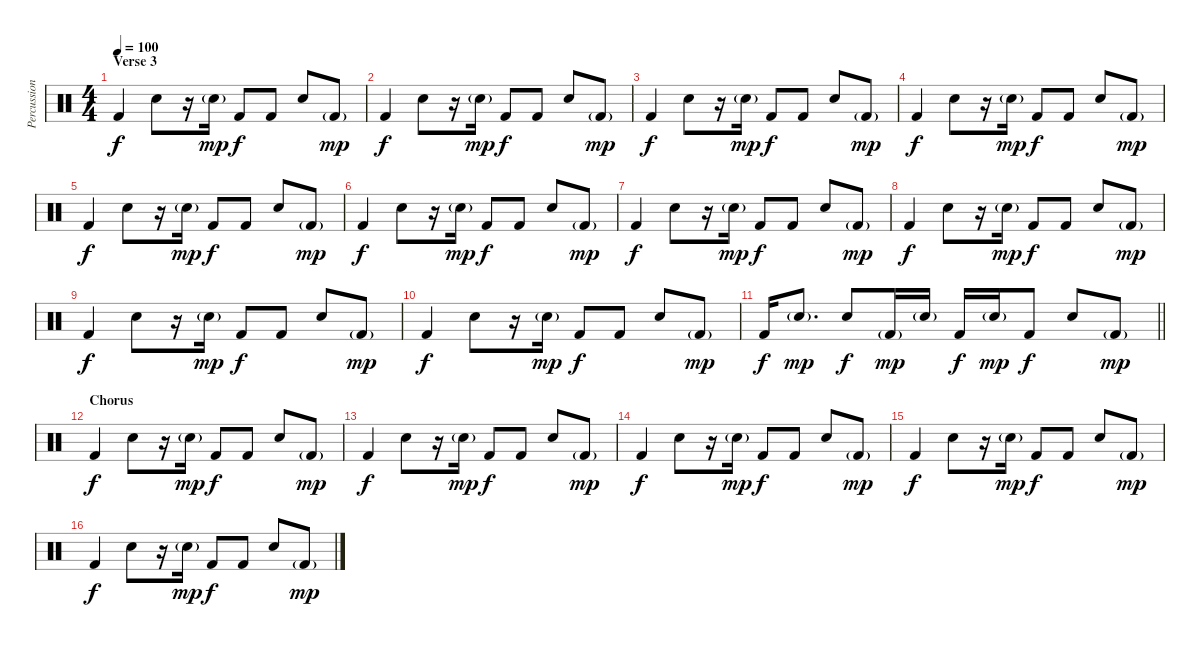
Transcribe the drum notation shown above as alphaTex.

\track ("Percussion" "Percussion") {instrument percussion}
\staff {score}
\articulation defaults
\ts (4 4)
\section ("" "Verse 3")
\tempo 100
\clef neutral
\ks c "Kick (hit) 2".4{dy f} "Snare (hit) 2".8
r.16 "Snare (hit) 2"{g}.16{dy mp} "Kick (hit) 2".8{dy f} "Kick (hit) 2".8 "Snare (hit) 2".8 "Kick (hit) 2"{g}.8{dy mp} |
"Kick (hit) 2".4{dy f} "Snare (hit) 2".8 r.16 "Snare (hit) 2"{g}.16{dy mp} "Kick (hit) 2".8{dy f} "Kick (hit) 2".8 "Snare (hit) 2".8 "Kick (hit) 2"{g}.8{dy mp} |
"Kick (hit) 2".4{dy f} "Snare (hit) 2".8 r.16 "Snare (hit) 2"{g}.16{dy mp} "Kick (hit) 2".8{dy f} "Kick (hit) 2".8 "Snare (hit) 2".8 "Kick (hit) 2"{g}.8{dy mp} |
"Kick (hit) 2".4{dy f} "Snare (hit) 2".8 r.16 "Snare (hit) 2"{g}.16{dy mp} "Kick (hit) 2".8{dy f} "Kick (hit) 2".8 "Snare (hit) 2".8 "Kick (hit) 2"{g}.8{dy mp} |
"Kick (hit) 2".4{dy f} "Snare (hit) 2".8 r.16 "Snare (hit) 2"{g}.16{dy mp} "Kick (hit) 2".8{dy f} "Kick (hit) 2".8 "Snare (hit) 2".8 "Kick (hit) 2"{g}.8{dy mp} |
"Kick (hit) 2".4{dy f} "Snare (hit) 2".8 r.16 "Snare (hit) 2"{g}.16{dy mp} "Kick (hit) 2".8{dy f} "Kick (hit) 2".8 "Snare (hit) 2".8 "Kick (hit) 2"{g}.8{dy mp} |
"Kick (hit) 2".4{dy f} "Snare (hit) 2".8 r.16 "Snare (hit) 2"{g}.16{dy mp} "Kick (hit) 2".8{dy f} "Kick (hit) 2".8 "Snare (hit) 2".8 "Kick (hit) 2"{g}.8{dy mp} |
"Kick (hit) 2".4{dy f} "Snare (hit) 2".8 r.16 "Snare (hit) 2"{g}.16{dy mp} "Kick (hit) 2".8{dy f} "Kick (hit) 2".8 "Snare (hit) 2".8 "Kick (hit) 2"{g}.8{dy mp} |
"Kick (hit) 2".4{dy f} "Snare (hit) 2".8 r.16 "Snare (hit) 2"{g}.16{dy mp} "Kick (hit) 2".8{dy f} "Kick (hit) 2".8 "Snare (hit) 2".8 "Kick (hit) 2"{g}.8{dy mp} |
"Kick (hit) 2".4{dy f} "Snare (hit) 2".8 r.16 "Snare (hit) 2"{g}.16{dy mp} "Kick (hit) 2".8{dy f} "Kick (hit) 2".8 "Snare (hit) 2".8 "Kick (hit) 2"{g}.8{dy mp} |
\barLineRight lightlight "Kick (hit) 2".16{dy f} "Snare (hit) 2"{g}.8{d dy mp} "Snare (hit) 2".8{dy f} "Kick (hit) 2"{g}.16{dy mp} "Snare (hit) 2"{g}.16 "Kick (hit) 2".16{dy f} "Snare (hit) 2"{g}.16{dy mp} "Kick (hit) 2".8{dy f} "Snare (hit) 2".8 "Kick (hit) 2"{g}.8{dy mp}
|
\section ("" "Chorus")
"Kick (hit) 2".4{dy f} "Snare (hit) 2".8 r.16 "Snare (hit) 2"{g}.16{dy mp} "Kick (hit) 2".8{dy f} "Kick (hit) 2".8 "Snare (hit) 2".8 "Kick (hit) 2"{g}.8{dy mp} |
"Kick (hit) 2".4{dy f} "Snare (hit) 2".8 r.16 "Snare (hit) 2"{g}.16{dy mp} "Kick (hit) 2".8{dy f} "Kick (hit) 2".8 "Snare (hit) 2".8 "Kick (hit) 2"{g}.8{dy mp} |
"Kick (hit) 2".4{dy f} "Snare (hit) 2".8 r.16 "Snare (hit) 2"{g}.16{dy mp} "Kick (hit) 2".8{dy f} "Kick (hit) 2".8 "Snare (hit) 2".8 "Kick (hit) 2"{g}.8{dy mp} |
"Kick (hit) 2".4{dy f} "Snare (hit) 2".8 r.16 "Snare (hit) 2"{g}.16{dy mp} "Kick (hit) 2".8{dy f} "Kick (hit) 2".8 "Snare (hit) 2".8 "Kick (hit) 2"{g}.8{dy mp} |
"Kick (hit) 2".4{dy f} "Snare (hit) 2".8 r.16 "Snare (hit) 2"{g}.16{dy mp} "Kick (hit) 2".8{dy f} "Kick (hit) 2".8 "Snare (hit) 2".8 "Kick (hit) 2"{g}.8{dy mp}
